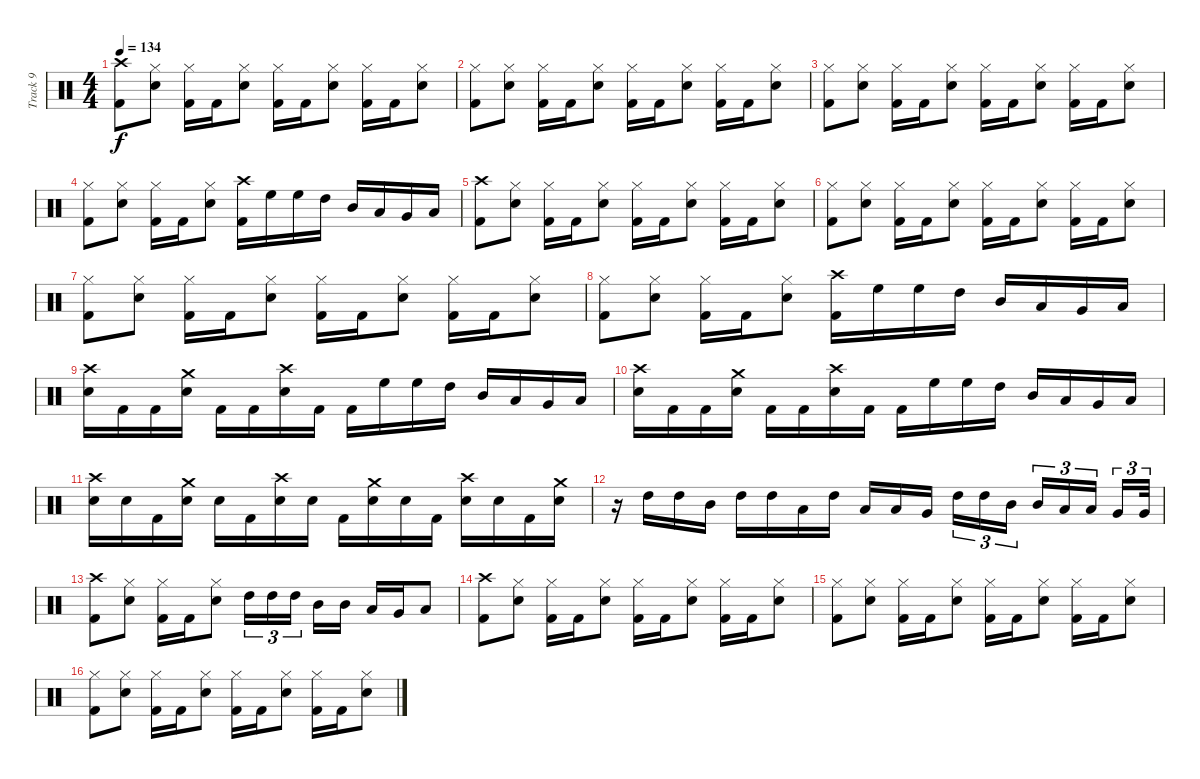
\track ("Track 9" "Track 9") {instrument percussion}
\staff {score}
\articulation defaults
\ts (4 4)
\tempo 134
\clef neutral
\ks c
("Crash high (hit)" "Kick (hit) 2").8{dy f} ("Hi-Hat (closed)" "Snare (hit) 2").8 ("Hi-Hat (closed)" "Kick (hit) 2").16 "Kick (hit) 2".16 ("Hi-Hat (closed)" "Snare (hit) 2").8 ("Hi-Hat (closed)" "Kick (hit) 2").16 "Kick (hit) 2".16 ("Hi-Hat (closed)" "Snare (hit) 2").8 ("Hi-Hat (closed)" "Kick (hit) 2").16 "Kick (hit) 2".16 ("Hi-Hat (closed)" "Snare (hit) 2").8 |
("Hi-Hat (closed)" "Kick (hit) 2").8 ("Hi-Hat (closed)" "Snare (hit) 2").8 ("Hi-Hat (closed)" "Kick (hit) 2").16 "Kick (hit) 2".16 ("Hi-Hat (closed)" "Snare (hit) 2").8 ("Hi-Hat (closed)" "Kick (hit) 2").16 "Kick (hit) 2".16 ("Hi-Hat (closed)" "Snare (hit) 2").8 ("Hi-Hat (closed)" "Kick (hit) 2").16 "Kick (hit) 2".16 ("Hi-Hat (closed)" "Snare (hit) 2").8 |
("Hi-Hat (closed)" "Kick (hit) 2").8 ("Hi-Hat (closed)" "Snare (hit) 2").8 ("Hi-Hat (closed)" "Kick (hit) 2").16 "Kick (hit) 2".16 ("Hi-Hat (closed)" "Snare (hit) 2").8 ("Hi-Hat (closed)" "Kick (hit) 2").16 "Kick (hit) 2".16 ("Hi-Hat (closed)" "Snare (hit) 2").8 ("Hi-Hat (closed)" "Kick (hit) 2").16 "Kick (hit) 2".16 ("Hi-Hat (closed)" "Snare (hit) 2").8 |
("Hi-Hat (closed)" "Kick (hit) 2").8 ("Hi-Hat (closed)" "Snare (hit) 2").8 ("Hi-Hat (closed)" "Kick (hit) 2").16 "Kick (hit) 2".16 ("Hi-Hat (closed)" "Snare (hit) 2").8 ("Crash high (hit)" "Kick (hit) 2").16 "High Floor Tom (hit)".16 "High Floor Tom (hit)".16 "High Tom (hit)".16 "Mid Tom (hit)".16 "Low Tom (hit)".16 "Very Low Tom (hit)".16 "Low Floor Tom (hit)".16 |
("Crash high (hit)" "Kick (hit) 2").8 ("Hi-Hat (closed)" "Snare (hit) 2").8 ("Hi-Hat (closed)" "Kick (hit) 2").16 "Kick (hit) 2".16 ("Hi-Hat (closed)" "Snare (hit) 2").8 ("Hi-Hat (closed)" "Kick (hit) 2").16 "Kick (hit) 2".16 ("Hi-Hat (closed)" "Snare (hit) 2").8 ("Hi-Hat (closed)" "Kick (hit) 2").16 "Kick (hit) 2".16 ("Hi-Hat (closed)" "Snare (hit) 2").8 |
("Hi-Hat (closed)" "Kick (hit) 2").8 ("Hi-Hat (closed)" "Snare (hit) 2").8 ("Hi-Hat (closed)" "Kick (hit) 2").16 "Kick (hit) 2".16 ("Hi-Hat (closed)" "Snare (hit) 2").8 ("Hi-Hat (closed)" "Kick (hit) 2").16 "Kick (hit) 2".16 ("Hi-Hat (closed)" "Snare (hit) 2").8 ("Hi-Hat (closed)" "Kick (hit) 2").16 "Kick (hit) 2".16 ("Hi-Hat (closed)" "Snare (hit) 2").8 |
("Hi-Hat (closed)" "Kick (hit) 2").8 ("Hi-Hat (closed)" "Snare (hit) 2").8 ("Hi-Hat (closed)" "Kick (hit) 2").16 "Kick (hit) 2".16 ("Hi-Hat (closed)" "Snare (hit) 2").8 ("Hi-Hat (closed)" "Kick (hit) 2").16 "Kick (hit) 2".16 ("Hi-Hat (closed)" "Snare (hit) 2").8 ("Hi-Hat (closed)" "Kick (hit) 2").16 "Kick (hit) 2".16 ("Hi-Hat (closed)" "Snare (hit) 2").8 |
("Hi-Hat (closed)" "Kick (hit) 2").8 ("Hi-Hat (closed)" "Snare (hit) 2").8 ("Hi-Hat (closed)" "Kick (hit) 2").16 "Kick (hit) 2".16 ("Hi-Hat (closed)" "Snare (hit) 2").8 ("Crash high (hit)" "Kick (hit) 2").16 "High Floor Tom (hit)".16 "High Floor Tom (hit)".16 "High Tom (hit)".16 "Mid Tom (hit)".16 "Low Tom (hit)".16 "Very Low Tom (hit)".16 "Low Floor Tom (hit)".16 |
("Crash high (hit)" "Snare (hit) 2").16 "Kick (hit) 2".16 "Kick (hit) 2".16 ("Crash medium (hit)" "Snare (hit) 2").16 "Kick (hit) 2".16 "Kick (hit) 2".16 ("Crash high (hit)" "Snare (hit) 2").16 "Kick (hit) 2".16 "Kick (hit) 2".16 "High Floor Tom (hit)".16 "High Floor Tom (hit)".16 "High Tom (hit)".16 "Mid Tom (hit)".16 "Low Tom (hit)".16 "Very Low Tom (hit)".16 "Low Floor Tom (hit)".16 |
("Crash high (hit)" "Snare (hit) 2").16 "Kick (hit) 2".16 "Kick (hit) 2".16 ("Crash medium (hit)" "Snare (hit) 2").16 "Kick (hit) 2".16 "Kick (hit) 2".16 ("Crash high (hit)" "Snare (hit) 2").16 "Kick (hit) 2".16 "Kick (hit) 2".16 "High Floor Tom (hit)".16 "High Floor Tom (hit)".16 "High Tom (hit)".16 "Mid Tom (hit)".16 "Low Tom (hit)".16 "Very Low Tom (hit)".16 "Low Floor Tom (hit)".16 |
("Crash high (hit)" "Snare (hit) 2").16 "Snare (hit) 2".16 "Kick (hit) 2".16 ("Crash medium (hit)" "Snare (hit) 2").16 "Snare (hit) 2".16 "Kick (hit) 2".16 ("Crash high (hit)" "Snare (hit) 2").16 "Snare (hit) 2".16 "Kick (hit) 2".16 ("Crash medium (hit)" "Snare (hit) 2").16 "Snare (hit) 2".16 "Kick (hit) 2".16 ("Crash high (hit)" "Snare (hit) 2").16 "Snare (hit) 2".16 "Kick (hit) 2".16 ("Crash medium (hit)" "Snare (hit) 2").16 |
r.16 "High Tom (hit)".16 "High Tom (hit)".16 "Mid Tom (hit)".16 "High Tom (hit)".16 "High Tom (hit)".16 "Low Tom (hit)".16 "High Tom (hit)".16 "Low Tom (hit)".16 "Low Tom (hit)".16 "Very Low Tom (hit)".16{beam splitsecondary} "High Tom (hit)".16{tu (3 2)} "High Tom (hit)".16{tu (3 2)} "Mid Tom (hit)".16{tu (3 2) beam splitsecondary} "Mid Tom (hit)".16{tu (3 2)} "Low Tom (hit)".16{tu (3 2)} "Low Tom (hit)".16{tu (3 2) beam splitsecondary} "Very Low Tom (hit)".16{tu (3 2)} "Very Low Tom (hit)".32{tu (3 2)} |
("Crash high (hit)" "Kick (hit) 2").8 ("Hi-Hat (closed)" "Snare (hit) 2").8 ("Hi-Hat (closed)" "Kick (hit) 2").16 "Kick (hit) 2".16 ("Hi-Hat (closed)" "Snare (hit) 2").8 "High Tom (hit)".16{tu (3 2)} "High Tom (hit)".16{tu (3 2)} "High Tom (hit)".16{tu (3 2) beam splitsecondary} "Mid Tom (hit)".16 "Mid Tom (hit)".16 "Low Tom (hit)".16 "Very Low Tom (hit)".16 "Low Floor Tom (hit)".8 |
("Crash high (hit)" "Kick (hit) 2").8 ("Hi-Hat (closed)" "Snare (hit) 2").8 ("Hi-Hat (closed)" "Kick (hit) 2").16 "Kick (hit) 2".16 ("Hi-Hat (closed)" "Snare (hit) 2").8 ("Hi-Hat (closed)" "Kick (hit) 2").16 "Kick (hit) 2".16 ("Hi-Hat (closed)" "Snare (hit) 2").8 ("Hi-Hat (closed)" "Kick (hit) 2").16 "Kick (hit) 2".16 ("Hi-Hat (closed)" "Snare (hit) 2").8 |
("Hi-Hat (closed)" "Kick (hit) 2").8 ("Hi-Hat (closed)" "Snare (hit) 2").8 ("Hi-Hat (closed)" "Kick (hit) 2").16 "Kick (hit) 2".16 ("Hi-Hat (closed)" "Snare (hit) 2").8 ("Hi-Hat (closed)" "Kick (hit) 2").16 "Kick (hit) 2".16 ("Hi-Hat (closed)" "Snare (hit) 2").8 ("Hi-Hat (closed)" "Kick (hit) 2").16 "Kick (hit) 2".16 ("Hi-Hat (closed)" "Snare (hit) 2").8 |
("Hi-Hat (closed)" "Kick (hit) 2").8 ("Hi-Hat (closed)" "Snare (hit) 2").8 ("Hi-Hat (closed)" "Kick (hit) 2").16 "Kick (hit) 2".16 ("Hi-Hat (closed)" "Snare (hit) 2").8 ("Hi-Hat (closed)" "Kick (hit) 2").16 "Kick (hit) 2".16 ("Hi-Hat (closed)" "Snare (hit) 2").8 ("Hi-Hat (closed)" "Kick (hit) 2").16 "Kick (hit) 2".16 ("Hi-Hat (closed)" "Snare (hit) 2").8
